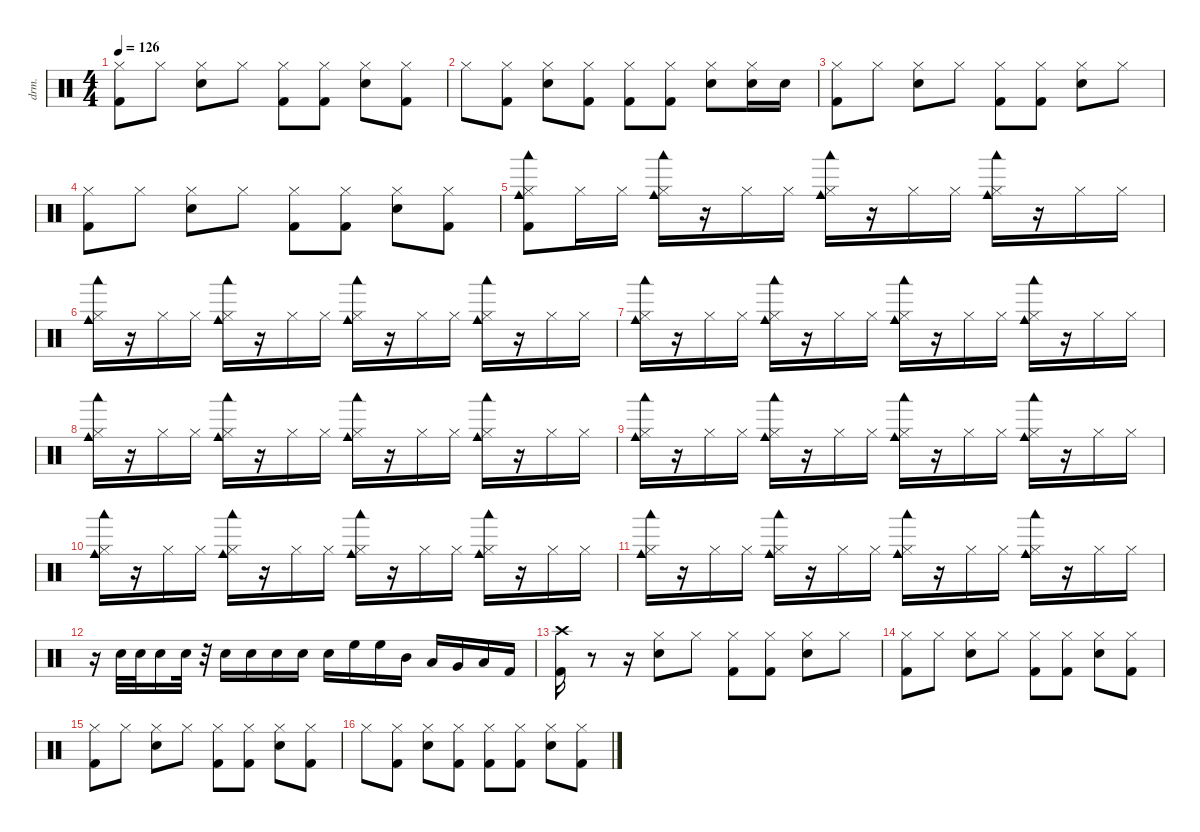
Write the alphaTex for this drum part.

\defaultSystemsLayout 4
\hideDynamics
\bracketExtendMode nobrackets
\otherSystemsTrackNameOrientation horizontal
\track ("Drums" "drm.") {instrument percussion}
\staff {score}
\articulation defaults
\ts (4 4)
\tempo 126
\clef neutral
\ks c
("Kick (hit) 2" "Hi-Hat (closed)").8{dy f beam Down} "Hi-Hat (closed)".8{beam Down} ("Snare (hit) 2" "Hi-Hat (closed)").8{beam Down} "Hi-Hat (closed)".8{beam Down} ("Hi-Hat (closed)" "Kick (hit) 2").8{beam Down} ("Hi-Hat (closed)" "Kick (hit) 2").8{beam Down} ("Snare (hit) 2" "Hi-Hat (closed)").8{beam Down} ("Hi-Hat (closed)" "Kick (hit) 2").8{beam Down} |
"Hi-Hat (closed)".8{beam Down} ("Kick (hit) 2" "Hi-Hat (closed)").8{beam Down} ("Snare (hit) 2" "Hi-Hat (closed)").8{beam Down} ("Kick (hit) 2" "Hi-Hat (closed)").8{beam Down} ("Kick (hit) 2" "Hi-Hat (closed)").8{beam Down} ("Hi-Hat (closed)" "Kick (hit) 2").8{beam Down} ("Snare (hit) 2" "Hi-Hat (closed)").8{beam Down} ("Snare (hit) 2" "Hi-Hat (closed)").16{beam Down} "Snare (hit) 2".16{beam Down} |
("Kick (hit) 2" "Hi-Hat (closed)").8{beam Down} "Hi-Hat (closed)".8{beam Down} ("Snare (hit) 2" "Hi-Hat (closed)").8{beam Down} "Hi-Hat (closed)".8{beam Down} ("Hi-Hat (closed)" "Kick (hit) 2").8{beam Down} ("Hi-Hat (closed)" "Kick (hit) 2").8{beam Down} ("Snare (hit) 2" "Hi-Hat (closed)").8{beam Down} "Hi-Hat (closed)".8{beam Down} |
("Kick (hit) 2" "Hi-Hat (closed)").8{beam Down} "Hi-Hat (closed)".8{beam Down} ("Snare (hit) 2" "Hi-Hat (closed)").8{beam Down} "Hi-Hat (closed)".8{beam Down} ("Hi-Hat (closed)" "Kick (hit) 2").8{beam Down} ("Hi-Hat (closed)" "Kick (hit) 2").8{beam Down} ("Snare (hit) 2" "Hi-Hat (closed)").8{beam Down} ("Kick (hit) 2" "Hi-Hat (closed)").8{beam Down} |
("Kick (hit) 2" "Cowbell medium (hit)" "Hi-Hat (closed)" "Woodblock low (hit)").8{beam Down} "Hi-Hat (closed)".16{beam Down} "Hi-Hat (closed)".16{beam Down} ("Cowbell medium (hit)" "Hi-Hat (closed)" "Woodblock low (hit)").16{beam Down} r.16{beam Down} "Hi-Hat (closed)".16{beam Down} "Hi-Hat (closed)".16{beam Down} ("Cowbell medium (hit)" "Hi-Hat (closed)" "Woodblock low (hit)").16{beam Down} r.16{beam Down} "Hi-Hat (closed)".16{beam Down} "Hi-Hat (closed)".16{beam Down} ("Cowbell medium (hit)" "Hi-Hat (closed)" "Woodblock low (hit)").16{beam Down} r.16{beam Down} "Hi-Hat (closed)".16{beam Down} "Hi-Hat (closed)".16{beam Down} |
("Cowbell medium (hit)" "Hi-Hat (closed)" "Woodblock low (hit)").16{beam Down} r.16{beam Down} "Hi-Hat (closed)".16{beam Down} "Hi-Hat (closed)".16{beam Down} ("Cowbell medium (hit)" "Hi-Hat (closed)" "Woodblock low (hit)").16{beam Down} r.16{beam Down} "Hi-Hat (closed)".16{beam Down} "Hi-Hat (closed)".16{beam Down} ("Cowbell medium (hit)" "Hi-Hat (closed)" "Woodblock low (hit)").16{beam Down} r.16{beam Down} "Hi-Hat (closed)".16{beam Down} "Hi-Hat (closed)".16{beam Down} ("Cowbell medium (hit)" "Hi-Hat (closed)" "Woodblock low (hit)").16{beam Down} r.16{beam Down} "Hi-Hat (closed)".16{beam Down} "Hi-Hat (closed)".16{beam Down} |
("Cowbell medium (hit)" "Hi-Hat (closed)" "Woodblock low (hit)").16{beam Down} r.16{beam Down} "Hi-Hat (closed)".16{beam Down} "Hi-Hat (closed)".16{beam Down} ("Cowbell medium (hit)" "Hi-Hat (closed)" "Woodblock low (hit)").16{beam Down} r.16{beam Down} "Hi-Hat (closed)".16{beam Down} "Hi-Hat (closed)".16{beam Down} ("Cowbell medium (hit)" "Hi-Hat (closed)" "Woodblock low (hit)").16{beam Down} r.16{beam Down} "Hi-Hat (closed)".16{beam Down} "Hi-Hat (closed)".16{beam Down} ("Cowbell medium (hit)" "Hi-Hat (closed)" "Woodblock low (hit)").16{beam Down} r.16{beam Down} "Hi-Hat (closed)".16{beam Down} "Hi-Hat (closed)".16{beam Down} |
("Cowbell medium (hit)" "Hi-Hat (closed)" "Woodblock low (hit)").16{beam Down} r.16{beam Down} "Hi-Hat (closed)".16{beam Down} "Hi-Hat (closed)".16{beam Down} ("Cowbell medium (hit)" "Hi-Hat (closed)" "Woodblock low (hit)").16{beam Down} r.16{beam Down} "Hi-Hat (closed)".16{beam Down} "Hi-Hat (closed)".16{beam Down} ("Cowbell medium (hit)" "Hi-Hat (closed)" "Woodblock low (hit)").16{beam Down} r.16{beam Down} "Hi-Hat (closed)".16{beam Down} "Hi-Hat (closed)".16{beam Down} ("Cowbell medium (hit)" "Hi-Hat (closed)" "Woodblock low (hit)").16{beam Down} r.16{beam Down} "Hi-Hat (closed)".16{beam Down} "Hi-Hat (closed)".16{beam Down} |
("Cowbell medium (hit)" "Hi-Hat (closed)" "Woodblock low (hit)").16{beam Down} r.16{beam Down} "Hi-Hat (closed)".16{beam Down} "Hi-Hat (closed)".16{beam Down} ("Cowbell medium (hit)" "Hi-Hat (closed)" "Woodblock low (hit)").16{beam Down} r.16{beam Down} "Hi-Hat (closed)".16{beam Down} "Hi-Hat (closed)".16{beam Down} ("Cowbell medium (hit)" "Hi-Hat (closed)" "Woodblock low (hit)").16{beam Down} r.16{beam Down} "Hi-Hat (closed)".16{beam Down} "Hi-Hat (closed)".16{beam Down} ("Cowbell medium (hit)" "Hi-Hat (closed)" "Woodblock low (hit)").16{beam Down} r.16{beam Down} "Hi-Hat (closed)".16{beam Down} "Hi-Hat (closed)".16{beam Down} |
("Cowbell medium (hit)" "Hi-Hat (closed)" "Woodblock low (hit)").16{beam Down} r.16{beam Down} "Hi-Hat (closed)".16{beam Down} "Hi-Hat (closed)".16{beam Down} ("Cowbell medium (hit)" "Hi-Hat (closed)" "Woodblock low (hit)").16{beam Down} r.16{beam Down} "Hi-Hat (closed)".16{beam Down} "Hi-Hat (closed)".16{beam Down} ("Cowbell medium (hit)" "Hi-Hat (closed)" "Woodblock low (hit)").16{beam Down} r.16{beam Down} "Hi-Hat (closed)".16{beam Down} "Hi-Hat (closed)".16{beam Down} ("Cowbell medium (hit)" "Hi-Hat (closed)" "Woodblock low (hit)").16{beam Down} r.16{beam Down} "Hi-Hat (closed)".16{beam Down} "Hi-Hat (closed)".16{beam Down} |
("Cowbell medium (hit)" "Hi-Hat (closed)" "Woodblock low (hit)").16{beam Down} r.16{beam Down} "Hi-Hat (closed)".16{beam Down} "Hi-Hat (closed)".16{beam Down} ("Cowbell medium (hit)" "Hi-Hat (closed)" "Woodblock low (hit)").16{beam Down} r.16{beam Down} "Hi-Hat (closed)".16{beam Down} "Hi-Hat (closed)".16{beam Down} ("Cowbell medium (hit)" "Hi-Hat (closed)" "Woodblock low (hit)").16{beam Down} r.16{beam Down} "Hi-Hat (closed)".16{beam Down} "Hi-Hat (closed)".16{beam Down} ("Cowbell medium (hit)" "Hi-Hat (closed)" "Woodblock low (hit)").16{beam Down} r.16{beam Down} "Hi-Hat (closed)".16{beam Down} "Hi-Hat (closed)".16{beam Down} |
r.16{beam Down} "Snare (hit) 2".32{beam Down} "Snare (hit) 2".32{beam Down} "Snare (hit) 2".16{beam Down} "Snare (hit) 2".32{beam Down} r.32{beam Down} "Snare (hit) 2".16{beam Down} "Snare (hit) 2".16{beam Down} "Snare (hit) 2".16{beam Down} "Snare (hit) 2".16{beam Down} "Snare (hit) 2".16{beam Down} "High Floor Tom (hit)".16{beam Down} "High Floor Tom (hit)".16{beam Down} "Mid Tom (hit)".16{beam Down} "Low Tom (hit)".16{beam Up} "Very Low Tom (hit)".16{beam Up} "Low Floor Tom (hit)".16{beam Up} "Kick (hit) 2".16{beam Up} |
("Crash high (hit)" "Kick (hit) 2").16{beam Down} r.8{beam Down} r.16{beam Down} ("Hi-Hat (closed)" "Snare (hit) 2").8{beam Down} "Hi-Hat (closed)".8{beam Down} ("Hi-Hat (closed)" "Kick (hit) 2").8{beam Down} ("Hi-Hat (closed)" "Kick (hit) 2").8{beam Down} ("Snare (hit) 2" "Hi-Hat (closed)").8{beam Down} "Hi-Hat (closed)".8{beam Down} |
("Kick (hit) 2" "Hi-Hat (closed)").8{beam Down} "Hi-Hat (closed)".8{beam Down} ("Snare (hit) 2" "Hi-Hat (closed)").8{beam Down} "Hi-Hat (closed)".8{beam Down} ("Hi-Hat (closed)" "Kick (hit) 2").8{beam Down} ("Hi-Hat (closed)" "Kick (hit) 2").8{beam Down} ("Snare (hit) 2" "Hi-Hat (closed)").8{beam Down} ("Kick (hit) 2" "Hi-Hat (closed)").8{beam Down} |
("Kick (hit) 2" "Hi-Hat (closed)").8{beam Down} "Hi-Hat (closed)".8{beam Down} ("Snare (hit) 2" "Hi-Hat (closed)").8{beam Down} "Hi-Hat (closed)".8{beam Down} ("Hi-Hat (closed)" "Kick (hit) 2").8{beam Down} ("Hi-Hat (closed)" "Kick (hit) 2").8{beam Down} ("Snare (hit) 2" "Hi-Hat (closed)").8{beam Down} ("Hi-Hat (closed)" "Kick (hit) 2").8{beam Down} |
"Hi-Hat (closed)".8{beam Down} ("Kick (hit) 2" "Hi-Hat (closed)").8{beam Down} ("Snare (hit) 2" "Hi-Hat (closed)").8{beam Down} ("Kick (hit) 2" "Hi-Hat (closed)").8{beam Down} ("Hi-Hat (closed)" "Kick (hit) 2").8{beam Down} ("Hi-Hat (closed)" "Kick (hit) 2").8{beam Down} ("Snare (hit) 2" "Hi-Hat (closed)").8{beam Down} ("Kick (hit) 2" "Hi-Hat (closed)").8{beam Down}
